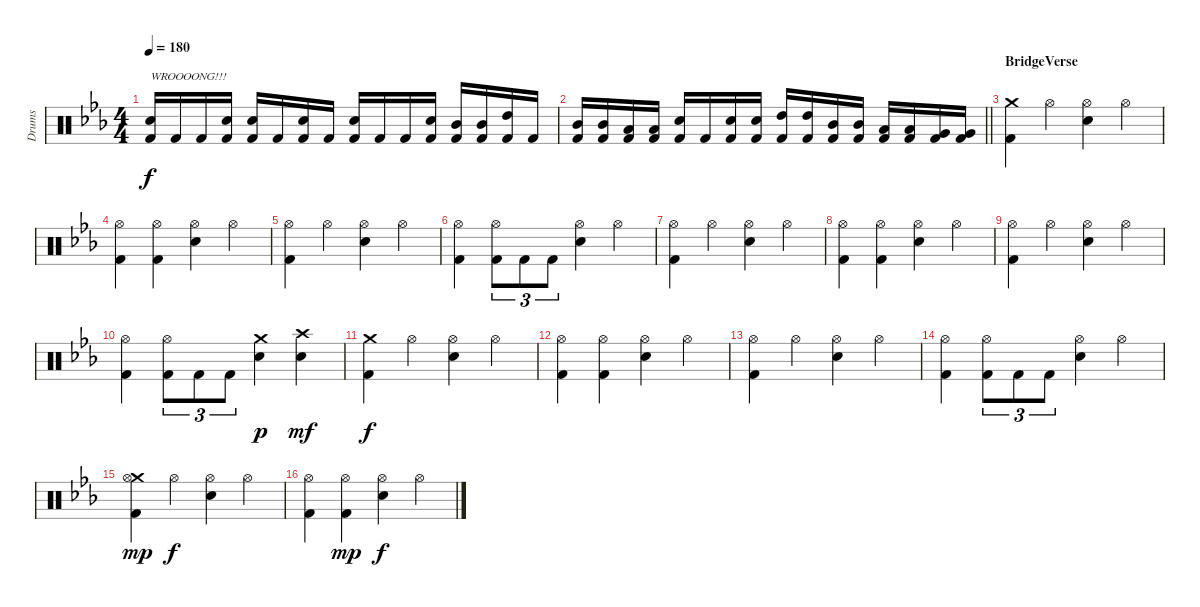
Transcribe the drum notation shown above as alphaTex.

\track ("Drums" "Drums") {instrument percussion}
\staff {score}
\articulation defaults
\ts (4 4)
\tempo 180
\clef neutral
\ks eb
("Snare (hit) 2" "Kick (hit) 2").16{txt "WROOOONG!!!" dy f} "Kick (hit) 2".16 "Kick (hit) 2".16 ("Snare (hit) 2" "Kick (hit) 2").16 ("Snare (hit) 2" "Kick (hit) 2").16 "Kick (hit) 2".16 ("Snare (hit) 2" "Kick (hit) 2").16 "Kick (hit) 2".16 ("Snare (hit) 2" "Kick (hit) 2").16 "Kick (hit) 2".16 "Kick (hit) 2".16 ("Snare (hit) 2" "Kick (hit) 2").16 ("Mid Tom (hit)" "Kick (hit) 2").16 ("Mid Tom (hit)" "Kick (hit) 2").16 ("High Tom (hit)" "Kick (hit) 2").16 "Kick (hit) 2".16 |
\barLineRight lightlight
("Mid Tom (hit)" "Kick (hit) 2").16 ("Mid Tom (hit)" "Kick (hit) 2").16 ("Low Tom (hit)" "Kick (hit) 2").16 ("Low Tom (hit)" "Kick (hit) 2").16 ("Snare (hit) 2" "Kick (hit) 2").16 "Kick (hit) 2".16 ("Snare (hit) 2" "Kick (hit) 2").16 ("Snare (hit) 2" "Kick (hit) 2").16 ("High Tom (hit)" "Kick (hit) 2").16 ("High Tom (hit)" "Kick (hit) 2").16 ("Mid Tom (hit)" "Kick (hit) 2").16 ("Mid Tom (hit)" "Kick (hit) 2").16 ("Low Tom (hit)" "Kick (hit) 2").16 ("Low Tom (hit)" "Kick (hit) 2").16 ("Very Low Tom (hit)" "Kick (hit) 2").16 ("Very Low Tom (hit)" "Kick (hit) 2").16 |
\section ("" "BridgeVerse")
("Crash medium (hit)" "Kick (hit) 2").4 "Hi-Hat (open)".4 ("Hi-Hat (open)" "Snare (hit) 2").4 "Hi-Hat (open)".4 |
("Hi-Hat (open)" "Kick (hit) 2").4 ("Hi-Hat (open)" "Kick (hit) 2").4 ("Hi-Hat (open)" "Snare (hit) 2").4 "Hi-Hat (open)".4 |
("Hi-Hat (open)" "Kick (hit) 2").4 "Hi-Hat (open)".4 ("Hi-Hat (open)" "Snare (hit) 2").4 "Hi-Hat (open)".4 |
("Hi-Hat (open)" "Kick (hit) 2").4 ("Hi-Hat (open)" "Kick (hit) 2").8{tu (3 2)} "Kick (hit) 2".8{tu (3 2)} "Kick (hit) 2".8{tu (3 2)} ("Hi-Hat (open)" "Snare (hit) 2").4 "Hi-Hat (open)".4 |
("Hi-Hat (open)" "Kick (hit) 2").4 "Hi-Hat (open)".4 ("Hi-Hat (open)" "Snare (hit) 2").4 "Hi-Hat (open)".4 |
("Hi-Hat (open)" "Kick (hit) 2").4 ("Hi-Hat (open)" "Kick (hit) 2").4 ("Hi-Hat (open)" "Snare (hit) 2").4 "Hi-Hat (open)".4 |
("Hi-Hat (open)" "Kick (hit) 2").4 "Hi-Hat (open)".4 ("Hi-Hat (open)" "Snare (hit) 2").4 "Hi-Hat (open)".4 |
("Hi-Hat (open)" "Kick (hit) 2").4 ("Hi-Hat (open)" "Kick (hit) 2").8{tu (3 2)} "Kick (hit) 2".8{tu (3 2)} "Kick (hit) 2".8{tu (3 2)} ("Crash medium (hit)" "Snare (hit) 2").4{dy p} ("Crash high (hit)" "Snare (hit) 2").4{dy mf} |
("Crash medium (hit)" "Kick (hit) 2").4{dy f} "Hi-Hat (open)".4 ("Hi-Hat (open)" "Snare (hit) 2").4 "Hi-Hat (open)".4 |
("Hi-Hat (open)" "Kick (hit) 2").4 ("Hi-Hat (open)" "Kick (hit) 2").4 ("Hi-Hat (open)" "Snare (hit) 2").4 "Hi-Hat (open)".4 |
("Hi-Hat (open)" "Kick (hit) 2").4 "Hi-Hat (open)".4 ("Hi-Hat (open)" "Snare (hit) 2").4 "Hi-Hat (open)".4 |
("Hi-Hat (open)" "Kick (hit) 2").4 ("Hi-Hat (open)" "Kick (hit) 2").8{tu (3 2)} "Kick (hit) 2".8{tu (3 2)} "Kick (hit) 2".8{tu (3 2)} ("Hi-Hat (open)" "Snare (hit) 2").4 "Hi-Hat (open)".4 |
("Crash medium (hit)" "Hi-Hat (open)" "Kick (hit) 2").4{dy mp} "Hi-Hat (open)".4{dy f} ("Hi-Hat (open)" "Snare (hit) 2").4 "Hi-Hat (open)".4 |
("Hi-Hat (open)" "Kick (hit) 2").4 ("Hi-Hat (open)" "Kick (hit) 2").4{dy mp} ("Hi-Hat (open)" "Snare (hit) 2").4{dy f} "Hi-Hat (open)".4
